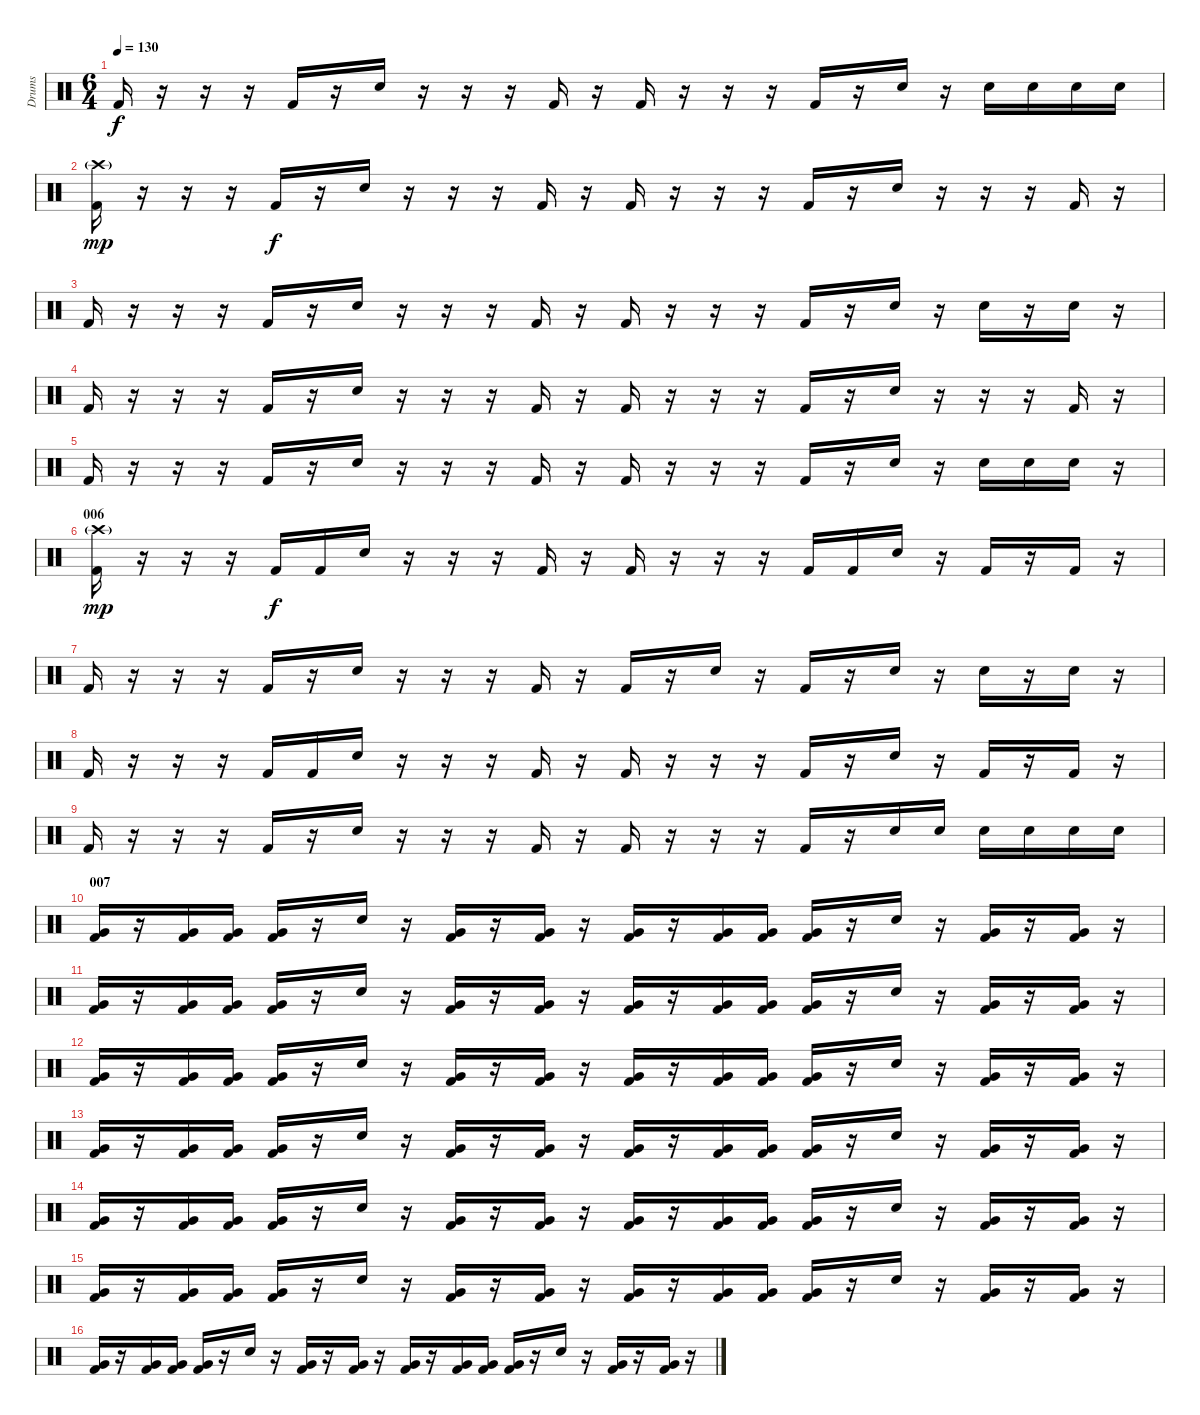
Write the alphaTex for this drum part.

\track ("Drums" "Drums") {instrument percussion}
\staff {score}
\articulation defaults
\ts (6 4)
\tempo 130
\clef neutral
\ks c "Kick (hit) 2".16{dy f}
r.16 r.16 r.16 "Kick (hit) 2".16 r.16 "Electric Snare (hit)".16 r.16 r.16 r.16 "Kick (hit) 2".16 r.16 "Kick (hit) 2".16 r.16 r.16 r.16 "Kick (hit) 2".16 r.16 "Electric Snare (hit)".16 r.16 "Electric Snare (hit)".16 "Electric Snare (hit)".16 "Electric Snare (hit)".16 "Electric Snare (hit)".16 |
("Kick (hit) 2" "Crash high (hit)"{g}).16{dy mp} r.16 r.16 r.16 "Kick (hit) 2".16{dy f} r.16 "Electric Snare (hit)".16 r.16 r.16 r.16 "Kick (hit) 2".16 r.16 "Kick (hit) 2".16 r.16 r.16 r.16 "Kick (hit) 2".16 r.16 "Electric Snare (hit)".16 r.16 r.16 r.16 "Kick (hit) 2".16 r.16 |
"Kick (hit) 2".16 r.16 r.16 r.16 "Kick (hit) 2".16 r.16 "Electric Snare (hit)".16 r.16 r.16 r.16 "Kick (hit) 2".16 r.16 "Kick (hit) 2".16 r.16 r.16 r.16 "Kick (hit) 2".16 r.16 "Electric Snare (hit)".16 r.16 "Electric Snare (hit)".16 r.16 "Electric Snare (hit)".16 r.16 |
"Kick (hit) 2".16 r.16 r.16 r.16 "Kick (hit) 2".16 r.16 "Electric Snare (hit)".16 r.16 r.16 r.16 "Kick (hit) 2".16 r.16 "Kick (hit) 2".16 r.16 r.16 r.16 "Kick (hit) 2".16 r.16 "Electric Snare (hit)".16 r.16 r.16 r.16 "Kick (hit) 2".16 r.16 |
"Kick (hit) 2".16 r.16 r.16 r.16 "Kick (hit) 2".16 r.16 "Electric Snare (hit)".16 r.16 r.16 r.16 "Kick (hit) 2".16 r.16 "Kick (hit) 2".16 r.16 r.16 r.16 "Kick (hit) 2".16 r.16 "Electric Snare (hit)".16 r.16 "Electric Snare (hit)".16 "Electric Snare (hit)".16 "Electric Snare (hit)".16 r.16 |
\section ("" "006")
("Kick (hit) 2" "Crash high (hit)"{g}).16{dy mp} r.16 r.16 r.16 "Kick (hit) 2".16{dy f} "Kick (hit) 2".16 "Electric Snare (hit)".16 r.16 r.16 r.16 "Kick (hit) 2".16 r.16 "Kick (hit) 2".16 r.16 r.16 r.16 "Kick (hit) 2".16 "Kick (hit) 2".16 "Electric Snare (hit)".16 r.16 "Kick (hit) 2".16 r.16 "Kick (hit) 2".16 r.16 |
"Kick (hit) 2".16 r.16 r.16 r.16 "Kick (hit) 2".16 r.16 "Electric Snare (hit)".16 r.16 r.16 r.16 "Kick (hit) 2".16 r.16 "Kick (hit) 2".16 r.16 "Electric Snare (hit)".16 r.16 "Kick (hit) 2".16 r.16 "Electric Snare (hit)".16 r.16 "Electric Snare (hit)".16 r.16 "Electric Snare (hit)".16 r.16 |
"Kick (hit) 2".16 r.16 r.16 r.16 "Kick (hit) 2".16 "Kick (hit) 2".16 "Electric Snare (hit)".16 r.16 r.16 r.16 "Kick (hit) 2".16 r.16 "Kick (hit) 2".16 r.16 r.16 r.16 "Kick (hit) 2".16 r.16 "Electric Snare (hit)".16 r.16 "Kick (hit) 2".16 r.16 "Kick (hit) 2".16 r.16 |
"Kick (hit) 2".16 r.16 r.16 r.16 "Kick (hit) 2".16 r.16 "Electric Snare (hit)".16 r.16 r.16 r.16 "Kick (hit) 2".16 r.16 "Kick (hit) 2".16 r.16 r.16 r.16 "Kick (hit) 2".16 r.16 "Electric Snare (hit)".16 "Electric Snare (hit)".16 "Electric Snare (hit)".16 "Electric Snare (hit)".16 "Electric Snare (hit)".16 "Electric Snare (hit)".16 |
\section ("" "007")
("Very Low Tom (hit)" "Kick (hit) 2").16 r.16 ("Very Low Tom (hit)" "Kick (hit) 2").16 ("Very Low Tom (hit)" "Kick (hit) 2").16 ("Very Low Tom (hit)" "Kick (hit) 2").16 r.16 "Electric Snare (hit)".16 r.16 ("Very Low Tom (hit)" "Kick (hit) 2").16 r.16 ("Very Low Tom (hit)" "Kick (hit) 2").16 r.16 ("Very Low Tom (hit)" "Kick (hit) 2").16 r.16 ("Very Low Tom (hit)" "Kick (hit) 2").16 ("Very Low Tom (hit)" "Kick (hit) 2").16 ("Very Low Tom (hit)" "Kick (hit) 2").16 r.16 "Electric Snare (hit)".16 r.16 ("Very Low Tom (hit)" "Kick (hit) 2").16 r.16 ("Very Low Tom (hit)" "Kick (hit) 2").16 r.16 |
("Very Low Tom (hit)" "Kick (hit) 2").16 r.16 ("Very Low Tom (hit)" "Kick (hit) 2").16 ("Very Low Tom (hit)" "Kick (hit) 2").16 ("Very Low Tom (hit)" "Kick (hit) 2").16 r.16 "Electric Snare (hit)".16 r.16 ("Very Low Tom (hit)" "Kick (hit) 2").16 r.16 ("Very Low Tom (hit)" "Kick (hit) 2").16 r.16 ("Very Low Tom (hit)" "Kick (hit) 2").16 r.16 ("Very Low Tom (hit)" "Kick (hit) 2").16 ("Very Low Tom (hit)" "Kick (hit) 2").16 ("Very Low Tom (hit)" "Kick (hit) 2").16 r.16 "Electric Snare (hit)".16 r.16 ("Very Low Tom (hit)" "Kick (hit) 2").16 r.16 ("Very Low Tom (hit)" "Kick (hit) 2").16 r.16 |
("Very Low Tom (hit)" "Kick (hit) 2").16 r.16 ("Very Low Tom (hit)" "Kick (hit) 2").16 ("Very Low Tom (hit)" "Kick (hit) 2").16 ("Very Low Tom (hit)" "Kick (hit) 2").16 r.16 "Electric Snare (hit)".16 r.16 ("Very Low Tom (hit)" "Kick (hit) 2").16 r.16 ("Very Low Tom (hit)" "Kick (hit) 2").16 r.16 ("Very Low Tom (hit)" "Kick (hit) 2").16 r.16 ("Very Low Tom (hit)" "Kick (hit) 2").16 ("Very Low Tom (hit)" "Kick (hit) 2").16 ("Very Low Tom (hit)" "Kick (hit) 2").16 r.16 "Electric Snare (hit)".16 r.16 ("Very Low Tom (hit)" "Kick (hit) 2").16 r.16 ("Very Low Tom (hit)" "Kick (hit) 2").16 r.16 |
("Very Low Tom (hit)" "Kick (hit) 2").16 r.16 ("Very Low Tom (hit)" "Kick (hit) 2").16 ("Very Low Tom (hit)" "Kick (hit) 2").16 ("Very Low Tom (hit)" "Kick (hit) 2").16 r.16 "Electric Snare (hit)".16 r.16 ("Very Low Tom (hit)" "Kick (hit) 2").16 r.16 ("Very Low Tom (hit)" "Kick (hit) 2").16 r.16 ("Very Low Tom (hit)" "Kick (hit) 2").16 r.16 ("Very Low Tom (hit)" "Kick (hit) 2").16 ("Very Low Tom (hit)" "Kick (hit) 2").16 ("Very Low Tom (hit)" "Kick (hit) 2").16 r.16 "Electric Snare (hit)".16 r.16 ("Very Low Tom (hit)" "Kick (hit) 2").16 r.16 ("Very Low Tom (hit)" "Kick (hit) 2").16 r.16 |
("Very Low Tom (hit)" "Kick (hit) 2").16 r.16 ("Very Low Tom (hit)" "Kick (hit) 2").16 ("Very Low Tom (hit)" "Kick (hit) 2").16 ("Very Low Tom (hit)" "Kick (hit) 2").16 r.16 "Electric Snare (hit)".16 r.16 ("Very Low Tom (hit)" "Kick (hit) 2").16 r.16 ("Very Low Tom (hit)" "Kick (hit) 2").16 r.16 ("Very Low Tom (hit)" "Kick (hit) 2").16 r.16 ("Very Low Tom (hit)" "Kick (hit) 2").16 ("Very Low Tom (hit)" "Kick (hit) 2").16 ("Very Low Tom (hit)" "Kick (hit) 2").16 r.16 "Electric Snare (hit)".16 r.16 ("Very Low Tom (hit)" "Kick (hit) 2").16 r.16 ("Very Low Tom (hit)" "Kick (hit) 2").16 r.16 |
("Very Low Tom (hit)" "Kick (hit) 2").16 r.16 ("Very Low Tom (hit)" "Kick (hit) 2").16 ("Very Low Tom (hit)" "Kick (hit) 2").16 ("Very Low Tom (hit)" "Kick (hit) 2").16 r.16 "Electric Snare (hit)".16 r.16 ("Very Low Tom (hit)" "Kick (hit) 2").16 r.16 ("Very Low Tom (hit)" "Kick (hit) 2").16 r.16 ("Very Low Tom (hit)" "Kick (hit) 2").16 r.16 ("Very Low Tom (hit)" "Kick (hit) 2").16 ("Very Low Tom (hit)" "Kick (hit) 2").16 ("Very Low Tom (hit)" "Kick (hit) 2").16 r.16 "Electric Snare (hit)".16 r.16 ("Very Low Tom (hit)" "Kick (hit) 2").16 r.16 ("Very Low Tom (hit)" "Kick (hit) 2").16 r.16 |
("Very Low Tom (hit)" "Kick (hit) 2").16 r.16 ("Very Low Tom (hit)" "Kick (hit) 2").16 ("Very Low Tom (hit)" "Kick (hit) 2").16 ("Very Low Tom (hit)" "Kick (hit) 2").16 r.16 "Electric Snare (hit)".16 r.16 ("Very Low Tom (hit)" "Kick (hit) 2").16 r.16 ("Very Low Tom (hit)" "Kick (hit) 2").16 r.16 ("Very Low Tom (hit)" "Kick (hit) 2").16 r.16 ("Very Low Tom (hit)" "Kick (hit) 2").16 ("Very Low Tom (hit)" "Kick (hit) 2").16 ("Very Low Tom (hit)" "Kick (hit) 2").16 r.16 "Electric Snare (hit)".16 r.16 ("Very Low Tom (hit)" "Kick (hit) 2").16 r.16 ("Very Low Tom (hit)" "Kick (hit) 2").16 r.16
